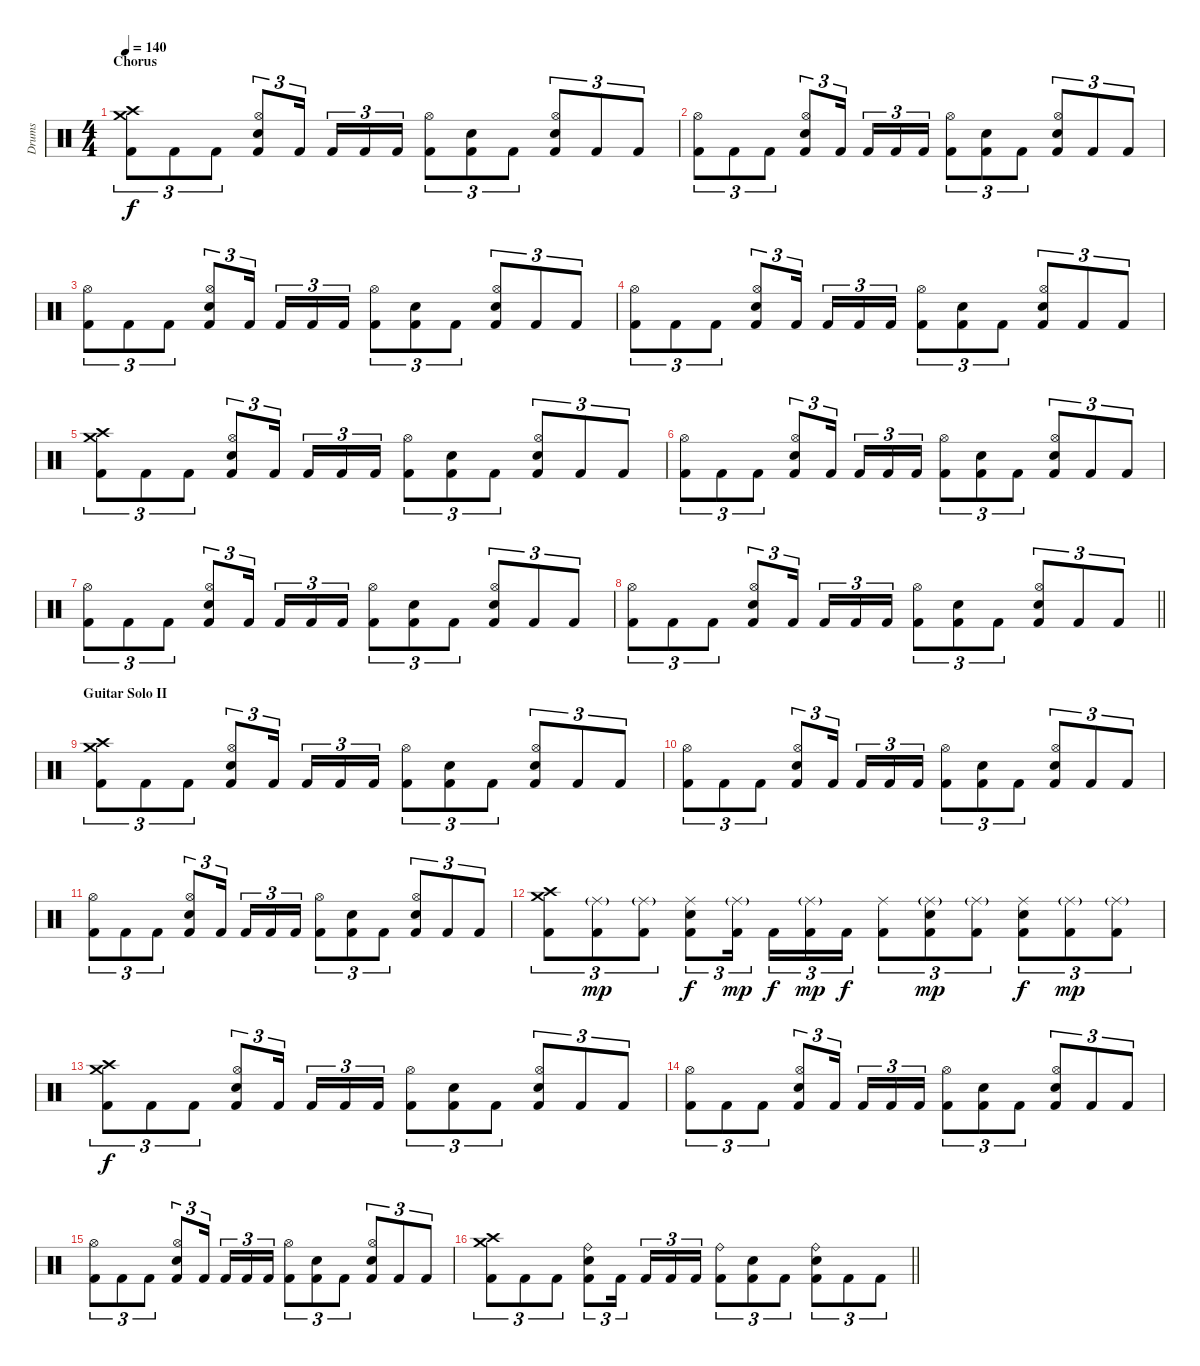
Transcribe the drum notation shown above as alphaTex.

\track ("Drums" "Drums") {instrument percussion}
\staff {score}
\articulation defaults
\ts (4 4)
\section ("" "Chorus")
\tempo 140
\clef neutral
\ks c
("Crash medium (hit)" "Crash high (hit)" "Kick (hit) 2").8{tu (3 2) dy f} "Kick (hit) 2".8{tu (3 2)} "Kick (hit) 2".8{tu (3 2)} ("Hi-Hat (open)" "Electric Snare (hit)" "Kick (hit) 2").8{tu (3 2)} "Kick (hit) 2".16{tu (3 2) beam splitsecondary} "Kick (hit) 2".16{tu (3 2)} "Kick (hit) 2".16{tu (3 2)} "Kick (hit) 2".16{tu (3 2)} ("Hi-Hat (open)" "Kick (hit) 2").8{tu (3 2)} ("Electric Snare (hit)" "Kick (hit) 2").8{tu (3 2)} "Kick (hit) 2".8{tu (3 2)} ("Hi-Hat (open)" "Electric Snare (hit)" "Kick (hit) 2").8{tu (3 2)} "Kick (hit) 2".8{tu (3 2)} "Kick (hit) 2".8{tu (3 2)} |
("Hi-Hat (open)" "Kick (hit) 2").8{tu (3 2)} "Kick (hit) 2".8{tu (3 2)} "Kick (hit) 2".8{tu (3 2)} ("Hi-Hat (open)" "Electric Snare (hit)" "Kick (hit) 2").8{tu (3 2)} "Kick (hit) 2".16{tu (3 2) beam splitsecondary} "Kick (hit) 2".16{tu (3 2)} "Kick (hit) 2".16{tu (3 2)} "Kick (hit) 2".16{tu (3 2)} ("Hi-Hat (open)" "Kick (hit) 2").8{tu (3 2)} ("Electric Snare (hit)" "Kick (hit) 2").8{tu (3 2)} "Kick (hit) 2".8{tu (3 2)} ("Hi-Hat (open)" "Electric Snare (hit)" "Kick (hit) 2").8{tu (3 2)} "Kick (hit) 2".8{tu (3 2)} "Kick (hit) 2".8{tu (3 2)} |
("Hi-Hat (open)" "Kick (hit) 2").8{tu (3 2)} "Kick (hit) 2".8{tu (3 2)} "Kick (hit) 2".8{tu (3 2)} ("Hi-Hat (open)" "Electric Snare (hit)" "Kick (hit) 2").8{tu (3 2)} "Kick (hit) 2".16{tu (3 2) beam splitsecondary} "Kick (hit) 2".16{tu (3 2)} "Kick (hit) 2".16{tu (3 2)} "Kick (hit) 2".16{tu (3 2)} ("Hi-Hat (open)" "Kick (hit) 2").8{tu (3 2)} ("Electric Snare (hit)" "Kick (hit) 2").8{tu (3 2)} "Kick (hit) 2".8{tu (3 2)} ("Hi-Hat (open)" "Electric Snare (hit)" "Kick (hit) 2").8{tu (3 2)} "Kick (hit) 2".8{tu (3 2)} "Kick (hit) 2".8{tu (3 2)} |
("Hi-Hat (open)" "Kick (hit) 2").8{tu (3 2)} "Kick (hit) 2".8{tu (3 2)} "Kick (hit) 2".8{tu (3 2)} ("Hi-Hat (open)" "Electric Snare (hit)" "Kick (hit) 2").8{tu (3 2)} "Kick (hit) 2".16{tu (3 2) beam splitsecondary} "Kick (hit) 2".16{tu (3 2)} "Kick (hit) 2".16{tu (3 2)} "Kick (hit) 2".16{tu (3 2)} ("Hi-Hat (open)" "Kick (hit) 2").8{tu (3 2)} ("Electric Snare (hit)" "Kick (hit) 2").8{tu (3 2)} "Kick (hit) 2".8{tu (3 2)} ("Hi-Hat (open)" "Electric Snare (hit)" "Kick (hit) 2").8{tu (3 2)} "Kick (hit) 2".8{tu (3 2)} "Kick (hit) 2".8{tu (3 2)} |
("Crash medium (hit)" "Crash high (hit)" "Kick (hit) 2").8{tu (3 2)} "Kick (hit) 2".8{tu (3 2)} "Kick (hit) 2".8{tu (3 2)} ("Hi-Hat (open)" "Electric Snare (hit)" "Kick (hit) 2").8{tu (3 2)} "Kick (hit) 2".16{tu (3 2) beam splitsecondary} "Kick (hit) 2".16{tu (3 2)} "Kick (hit) 2".16{tu (3 2)} "Kick (hit) 2".16{tu (3 2)} ("Hi-Hat (open)" "Kick (hit) 2").8{tu (3 2)} ("Electric Snare (hit)" "Kick (hit) 2").8{tu (3 2)} "Kick (hit) 2".8{tu (3 2)} ("Hi-Hat (open)" "Electric Snare (hit)" "Kick (hit) 2").8{tu (3 2)} "Kick (hit) 2".8{tu (3 2)} "Kick (hit) 2".8{tu (3 2)} |
("Hi-Hat (open)" "Kick (hit) 2").8{tu (3 2)} "Kick (hit) 2".8{tu (3 2)} "Kick (hit) 2".8{tu (3 2)} ("Hi-Hat (open)" "Electric Snare (hit)" "Kick (hit) 2").8{tu (3 2)} "Kick (hit) 2".16{tu (3 2) beam splitsecondary} "Kick (hit) 2".16{tu (3 2)} "Kick (hit) 2".16{tu (3 2)} "Kick (hit) 2".16{tu (3 2)} ("Hi-Hat (open)" "Kick (hit) 2").8{tu (3 2)} ("Electric Snare (hit)" "Kick (hit) 2").8{tu (3 2)} "Kick (hit) 2".8{tu (3 2)} ("Hi-Hat (open)" "Electric Snare (hit)" "Kick (hit) 2").8{tu (3 2)} "Kick (hit) 2".8{tu (3 2)} "Kick (hit) 2".8{tu (3 2)} |
("Hi-Hat (open)" "Kick (hit) 2").8{tu (3 2)} "Kick (hit) 2".8{tu (3 2)} "Kick (hit) 2".8{tu (3 2)} ("Hi-Hat (open)" "Electric Snare (hit)" "Kick (hit) 2").8{tu (3 2)} "Kick (hit) 2".16{tu (3 2) beam splitsecondary} "Kick (hit) 2".16{tu (3 2)} "Kick (hit) 2".16{tu (3 2)} "Kick (hit) 2".16{tu (3 2)} ("Hi-Hat (open)" "Kick (hit) 2").8{tu (3 2)} ("Electric Snare (hit)" "Kick (hit) 2").8{tu (3 2)} "Kick (hit) 2".8{tu (3 2)} ("Hi-Hat (open)" "Electric Snare (hit)" "Kick (hit) 2").8{tu (3 2)} "Kick (hit) 2".8{tu (3 2)} "Kick (hit) 2".8{tu (3 2)} |
\barLineRight lightlight
("Hi-Hat (open)" "Kick (hit) 2").8{tu (3 2)} "Kick (hit) 2".8{tu (3 2)} "Kick (hit) 2".8{tu (3 2)} ("Hi-Hat (open)" "Electric Snare (hit)" "Kick (hit) 2").8{tu (3 2)} "Kick (hit) 2".16{tu (3 2) beam splitsecondary} "Kick (hit) 2".16{tu (3 2)} "Kick (hit) 2".16{tu (3 2)} "Kick (hit) 2".16{tu (3 2)} ("Hi-Hat (open)" "Kick (hit) 2").8{tu (3 2)} ("Electric Snare (hit)" "Kick (hit) 2").8{tu (3 2)} "Kick (hit) 2".8{tu (3 2)} ("Hi-Hat (open)" "Electric Snare (hit)" "Kick (hit) 2").8{tu (3 2)} "Kick (hit) 2".8{tu (3 2)} "Kick (hit) 2".8{tu (3 2)} |
\section ("" "Guitar Solo II")
("Crash medium (hit)" "Crash high (hit)" "Kick (hit) 2").8{tu (3 2)} "Kick (hit) 2".8{tu (3 2)} "Kick (hit) 2".8{tu (3 2)} ("Hi-Hat (open)" "Electric Snare (hit)" "Kick (hit) 2").8{tu (3 2)} "Kick (hit) 2".16{tu (3 2) beam splitsecondary} "Kick (hit) 2".16{tu (3 2)} "Kick (hit) 2".16{tu (3 2)} "Kick (hit) 2".16{tu (3 2)} ("Hi-Hat (open)" "Kick (hit) 2").8{tu (3 2)} ("Electric Snare (hit)" "Kick (hit) 2").8{tu (3 2)} "Kick (hit) 2".8{tu (3 2)} ("Hi-Hat (open)" "Electric Snare (hit)" "Kick (hit) 2").8{tu (3 2)} "Kick (hit) 2".8{tu (3 2)} "Kick (hit) 2".8{tu (3 2)} |
("Hi-Hat (open)" "Kick (hit) 2").8{tu (3 2)} "Kick (hit) 2".8{tu (3 2)} "Kick (hit) 2".8{tu (3 2)} ("Hi-Hat (open)" "Electric Snare (hit)" "Kick (hit) 2").8{tu (3 2)} "Kick (hit) 2".16{tu (3 2) beam splitsecondary} "Kick (hit) 2".16{tu (3 2)} "Kick (hit) 2".16{tu (3 2)} "Kick (hit) 2".16{tu (3 2)} ("Hi-Hat (open)" "Kick (hit) 2").8{tu (3 2)} ("Electric Snare (hit)" "Kick (hit) 2").8{tu (3 2)} "Kick (hit) 2".8{tu (3 2)} ("Hi-Hat (open)" "Electric Snare (hit)" "Kick (hit) 2").8{tu (3 2)} "Kick (hit) 2".8{tu (3 2)} "Kick (hit) 2".8{tu (3 2)} |
("Hi-Hat (open)" "Kick (hit) 2").8{tu (3 2)} "Kick (hit) 2".8{tu (3 2)} "Kick (hit) 2".8{tu (3 2)} ("Hi-Hat (open)" "Electric Snare (hit)" "Kick (hit) 2").8{tu (3 2)} "Kick (hit) 2".16{tu (3 2) beam splitsecondary} "Kick (hit) 2".16{tu (3 2)} "Kick (hit) 2".16{tu (3 2)} "Kick (hit) 2".16{tu (3 2)} ("Hi-Hat (open)" "Kick (hit) 2").8{tu (3 2)} ("Electric Snare (hit)" "Kick (hit) 2").8{tu (3 2)} "Kick (hit) 2".8{tu (3 2)} ("Hi-Hat (open)" "Electric Snare (hit)" "Kick (hit) 2").8{tu (3 2)} "Kick (hit) 2".8{tu (3 2)} "Kick (hit) 2".8{tu (3 2)} |
("Crash medium (hit)" "Crash high (hit)" "Kick (hit) 2").8{tu (3 2)} ("Ride (middle)"{g} "Kick (hit) 2").8{tu (3 2) dy mp} ("Ride (middle)"{g} "Kick (hit) 2").8{tu (3 2)} ("Ride (middle)" "Electric Snare (hit)" "Kick (hit) 2").8{tu (3 2) dy f} ("Ride (middle)"{g} "Kick (hit) 2").16{tu (3 2) dy mp beam splitsecondary} "Kick (hit) 2".16{tu (3 2) dy f} ("Ride (middle)"{g} "Kick (hit) 2").16{tu (3 2) dy mp} "Kick (hit) 2".16{tu (3 2) dy f} ("Ride (middle)" "Kick (hit) 2").8{tu (3 2)} ("Ride (middle)"{g} "Electric Snare (hit)" "Kick (hit) 2").8{tu (3 2) dy mp} ("Ride (middle)"{g} "Kick (hit) 2").8{tu (3 2)} ("Ride (middle)" "Electric Snare (hit)" "Kick (hit) 2").8{tu (3 2) dy f} ("Ride (middle)"{g} "Kick (hit) 2").8{tu (3 2) dy mp} ("Ride (middle)"{g} "Kick (hit) 2").8{tu (3 2)} |
("Crash medium (hit)" "Crash high (hit)" "Kick (hit) 2").8{tu (3 2) dy f} "Kick (hit) 2".8{tu (3 2)} "Kick (hit) 2".8{tu (3 2)} ("Hi-Hat (open)" "Electric Snare (hit)" "Kick (hit) 2").8{tu (3 2)} "Kick (hit) 2".16{tu (3 2) beam splitsecondary} "Kick (hit) 2".16{tu (3 2)} "Kick (hit) 2".16{tu (3 2)} "Kick (hit) 2".16{tu (3 2)} ("Hi-Hat (open)" "Kick (hit) 2").8{tu (3 2)} ("Electric Snare (hit)" "Kick (hit) 2").8{tu (3 2)} "Kick (hit) 2".8{tu (3 2)} ("Hi-Hat (open)" "Electric Snare (hit)" "Kick (hit) 2").8{tu (3 2)} "Kick (hit) 2".8{tu (3 2)} "Kick (hit) 2".8{tu (3 2)} |
("Hi-Hat (open)" "Kick (hit) 2").8{tu (3 2)} "Kick (hit) 2".8{tu (3 2)} "Kick (hit) 2".8{tu (3 2)} ("Hi-Hat (open)" "Electric Snare (hit)" "Kick (hit) 2").8{tu (3 2)} "Kick (hit) 2".16{tu (3 2) beam splitsecondary} "Kick (hit) 2".16{tu (3 2)} "Kick (hit) 2".16{tu (3 2)} "Kick (hit) 2".16{tu (3 2)} ("Hi-Hat (open)" "Kick (hit) 2").8{tu (3 2)} ("Electric Snare (hit)" "Kick (hit) 2").8{tu (3 2)} "Kick (hit) 2".8{tu (3 2)} ("Hi-Hat (open)" "Electric Snare (hit)" "Kick (hit) 2").8{tu (3 2)} "Kick (hit) 2".8{tu (3 2)} "Kick (hit) 2".8{tu (3 2)} |
("Hi-Hat (open)" "Kick (hit) 2").8{tu (3 2)} "Kick (hit) 2".8{tu (3 2)} "Kick (hit) 2".8{tu (3 2)} ("Hi-Hat (open)" "Electric Snare (hit)" "Kick (hit) 2").8{tu (3 2)} "Kick (hit) 2".16{tu (3 2) beam splitsecondary} "Kick (hit) 2".16{tu (3 2)} "Kick (hit) 2".16{tu (3 2)} "Kick (hit) 2".16{tu (3 2)} ("Hi-Hat (open)" "Kick (hit) 2").8{tu (3 2)} ("Electric Snare (hit)" "Kick (hit) 2").8{tu (3 2)} "Kick (hit) 2".8{tu (3 2)} ("Hi-Hat (open)" "Electric Snare (hit)" "Kick (hit) 2").8{tu (3 2)} "Kick (hit) 2".8{tu (3 2)} "Kick (hit) 2".8{tu (3 2)} |
\barLineRight lightlight
("Crash medium (hit)" "Crash high (hit)" "Kick (hit) 2").8{tu (3 2)} "Kick (hit) 2".8{tu (3 2)} "Kick (hit) 2".8{tu (3 2)} ("Ride (bell)" "Electric Snare (hit)" "Kick (hit) 2").8{tu (3 2)} "Kick (hit) 2".16{tu (3 2) beam splitsecondary} "Kick (hit) 2".16{tu (3 2)} "Kick (hit) 2".16{tu (3 2)} "Kick (hit) 2".16{tu (3 2)} ("Ride (bell)" "Kick (hit) 2").8{tu (3 2)} ("Electric Snare (hit)" "Kick (hit) 2").8{tu (3 2)} "Kick (hit) 2".8{tu (3 2)} ("Ride (bell)" "Electric Snare (hit)" "Kick (hit) 2").8{tu (3 2)} "Kick (hit) 2".8{tu (3 2)} "Kick (hit) 2".8{tu (3 2)}
